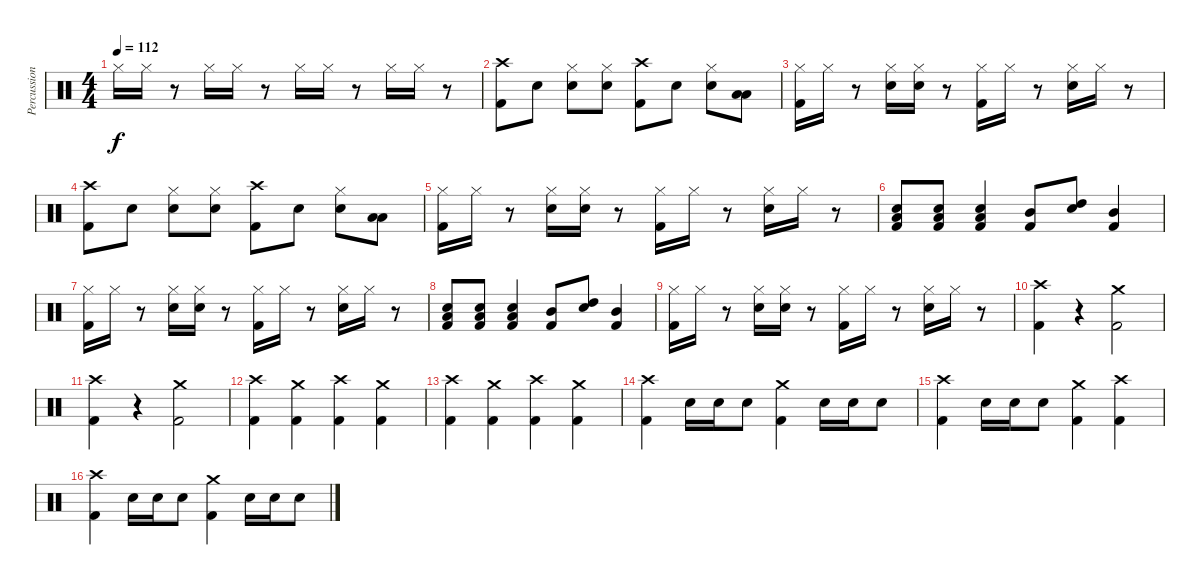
\track ("Percussion" "Percussion") {instrument percussion}
\staff {score}
\articulation defaults
\ts (4 4)
\tempo 112
\clef neutral
\ks c "Hi-Hat (closed)".16{dy f} "Hi-Hat (closed)".16
r.8 "Hi-Hat (closed)".16 "Hi-Hat (closed)".16 r.8 "Hi-Hat (closed)".16 "Hi-Hat (closed)".16 r.8 "Hi-Hat (closed)".16 "Hi-Hat (closed)".16 r.8 |
("Crash high (hit)" "Kick (hit) 2").8 "Snare (hit) 2".8 ("Hi-Hat (closed)" "Snare (hit) 2").8 ("Hi-Hat (closed)" "Snare (hit) 2").8 ("Crash high (hit)" "Kick (hit) 2").8 "Snare (hit) 2".8 ("Hi-Hat (closed)" "Snare (hit) 2").8 ("Low Floor Tom (hit)" "Low Tom (hit)").8 |
("Hi-Hat (closed)" "Kick (hit) 2").16 "Hi-Hat (closed)".16 r.8 ("Hi-Hat (closed)" "Snare (hit) 2").16 ("Hi-Hat (closed)" "Snare (hit) 2").16 r.8 ("Hi-Hat (closed)" "Kick (hit) 2").16 "Hi-Hat (closed)".16 r.8 ("Hi-Hat (closed)" "Snare (hit) 2").16 "Hi-Hat (closed)".16 r.8 |
("Crash high (hit)" "Kick (hit) 2").8 "Snare (hit) 2".8 ("Hi-Hat (closed)" "Snare (hit) 2").8 ("Hi-Hat (closed)" "Snare (hit) 2").8 ("Crash high (hit)" "Kick (hit) 2").8 "Snare (hit) 2".8 ("Hi-Hat (closed)" "Snare (hit) 2").8 ("Low Floor Tom (hit)" "Low Tom (hit)").8 |
("Hi-Hat (closed)" "Kick (hit) 2").16 "Hi-Hat (closed)".16 r.8 ("Hi-Hat (closed)" "Snare (hit) 2").16 ("Hi-Hat (closed)" "Snare (hit) 2").16 r.8 ("Hi-Hat (closed)" "Kick (hit) 2").16 "Hi-Hat (closed)".16 r.8 ("Hi-Hat (closed)" "Snare (hit) 2").16 "Hi-Hat (closed)".16 r.8 |
("Snare (hit) 2" "Low Floor Tom (hit)" "Kick (hit) 2").8 ("Snare (hit) 2" "Low Floor Tom (hit)" "Kick (hit) 2").8 ("Snare (hit) 2" "Low Floor Tom (hit)" "Kick (hit) 2").4 ("Mid Tom (hit)" "Kick (hit) 2").8 ("Snare (hit) 2" "High Tom (hit)").8 ("Mid Tom (hit)" "Kick (hit) 2").4 |
("Hi-Hat (closed)" "Kick (hit) 2").16 "Hi-Hat (closed)".16 r.8 ("Hi-Hat (closed)" "Snare (hit) 2").16 ("Hi-Hat (closed)" "Snare (hit) 2").16 r.8 ("Hi-Hat (closed)" "Kick (hit) 2").16 "Hi-Hat (closed)".16 r.8 ("Hi-Hat (closed)" "Snare (hit) 2").16 "Hi-Hat (closed)".16 r.8 |
("Snare (hit) 2" "Low Floor Tom (hit)" "Kick (hit) 2").8 ("Snare (hit) 2" "Low Floor Tom (hit)" "Kick (hit) 2").8 ("Snare (hit) 2" "Low Floor Tom (hit)" "Kick (hit) 2").4 ("Mid Tom (hit)" "Kick (hit) 2").8 ("Snare (hit) 2" "High Tom (hit)").8 ("Mid Tom (hit)" "Kick (hit) 2").4 |
("Hi-Hat (closed)" "Kick (hit) 2").16 "Hi-Hat (closed)".16 r.8 ("Hi-Hat (closed)" "Snare (hit) 2").16 ("Hi-Hat (closed)" "Snare (hit) 2").16 r.8 ("Hi-Hat (closed)" "Kick (hit) 2").16 "Hi-Hat (closed)".16 r.8 ("Hi-Hat (closed)" "Snare (hit) 2").16 "Hi-Hat (closed)".16 r.8 |
("Crash high (hit)" "Kick (hit) 2").4 r.4 ("Crash medium (hit)" "Kick (hit) 2").2 |
("Crash high (hit)" "Kick (hit) 2").4 r.4 ("Crash medium (hit)" "Kick (hit) 2").2 |
("Crash high (hit)" "Kick (hit) 2").4 ("Crash medium (hit)" "Kick (hit) 2").4 ("Crash high (hit)" "Kick (hit) 2").4 ("Crash medium (hit)" "Kick (hit) 2").4 |
("Crash high (hit)" "Kick (hit) 2").4 ("Crash medium (hit)" "Kick (hit) 2").4 ("Crash high (hit)" "Kick (hit) 2").4 ("Crash medium (hit)" "Kick (hit) 2").4 |
("Crash high (hit)" "Kick (hit) 2").4 "Snare (hit) 2".16 "Snare (hit) 2".16 "Snare (hit) 2".8 ("Crash medium (hit)" "Kick (hit) 2").4 "Snare (hit) 2".16 "Snare (hit) 2".16 "Snare (hit) 2".8 |
("Crash high (hit)" "Kick (hit) 2").4 "Snare (hit) 2".16 "Snare (hit) 2".16 "Snare (hit) 2".8 ("Crash medium (hit)" "Kick (hit) 2").4 ("Crash high (hit)" "Kick (hit) 2").4 |
("Crash high (hit)" "Kick (hit) 2").4 "Snare (hit) 2".16 "Snare (hit) 2".16 "Snare (hit) 2".8 ("Crash medium (hit)" "Kick (hit) 2").4 "Snare (hit) 2".16 "Snare (hit) 2".16 "Snare (hit) 2".8
